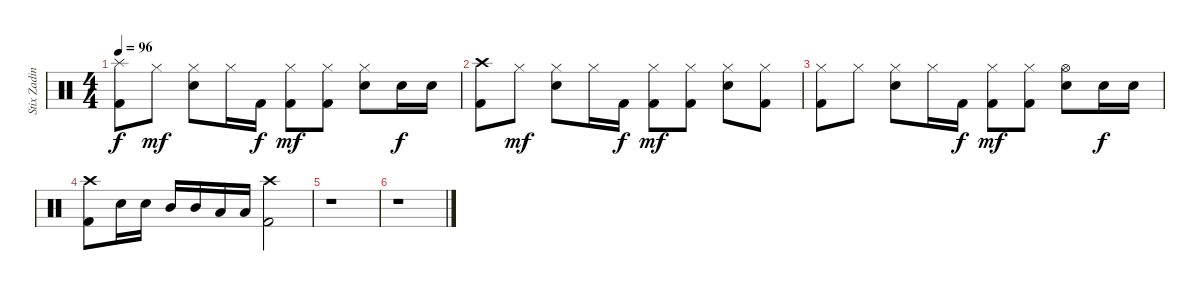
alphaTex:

\track ("Stix Zadinia" "Stix Zadin") {instrument percussion}
\staff {score}
\articulation defaults
\ts (4 4)
\tempo 96
\clef neutral
\ks c
("Splash (hit)" "Kick (hit) 2").8{dy f} "Hi-Hat (closed)".8{dy mf} ("Hi-Hat (closed)" "Electric Snare (hit)").8 "Hi-Hat (closed)".16 "Kick (hit) 2".16{dy f} ("Hi-Hat (closed)" "Kick (hit) 2").8{dy mf} ("Hi-Hat (closed)" "Kick (hit) 2").8 ("Hi-Hat (closed)" "Electric Snare (hit)").8 "Electric Snare (hit)".16{dy f} "Electric Snare (hit)".16 |
("Crash high (hit)" "Kick (hit) 2").8 "Hi-Hat (closed)".8{dy mf} ("Hi-Hat (closed)" "Electric Snare (hit)").8 "Hi-Hat (closed)".16 "Kick (hit) 2".16{dy f} ("Hi-Hat (closed)" "Kick (hit) 2").8{dy mf} ("Hi-Hat (closed)" "Kick (hit) 2").8 ("Hi-Hat (closed)" "Electric Snare (hit)").8 ("Hi-Hat (closed)" "Kick (hit) 2").8 |
("Hi-Hat (closed)" "Kick (hit) 2").8 "Hi-Hat (closed)".8 ("Hi-Hat (closed)" "Electric Snare (hit)").8 "Hi-Hat (closed)".16 "Kick (hit) 2".16{dy f} ("Hi-Hat (closed)" "Kick (hit) 2").8{dy mf} ("Hi-Hat (closed)" "Kick (hit) 2").8 ("Hi-Hat (open)" "Electric Snare (hit)").8 "Electric Snare (hit)".16{dy f} "Electric Snare (hit)".16 |
("Crash high (hit)" "Kick (hit) 2").8 "Electric Snare (hit)".16 "Electric Snare (hit)".16 "Mid Tom (hit)".16 "Mid Tom (hit)".16 "Low Tom (hit)".16 "Low Tom (hit)".16 ("Crash high (hit)" "Kick (hit) 2").2 |
r.1 |
r.1
